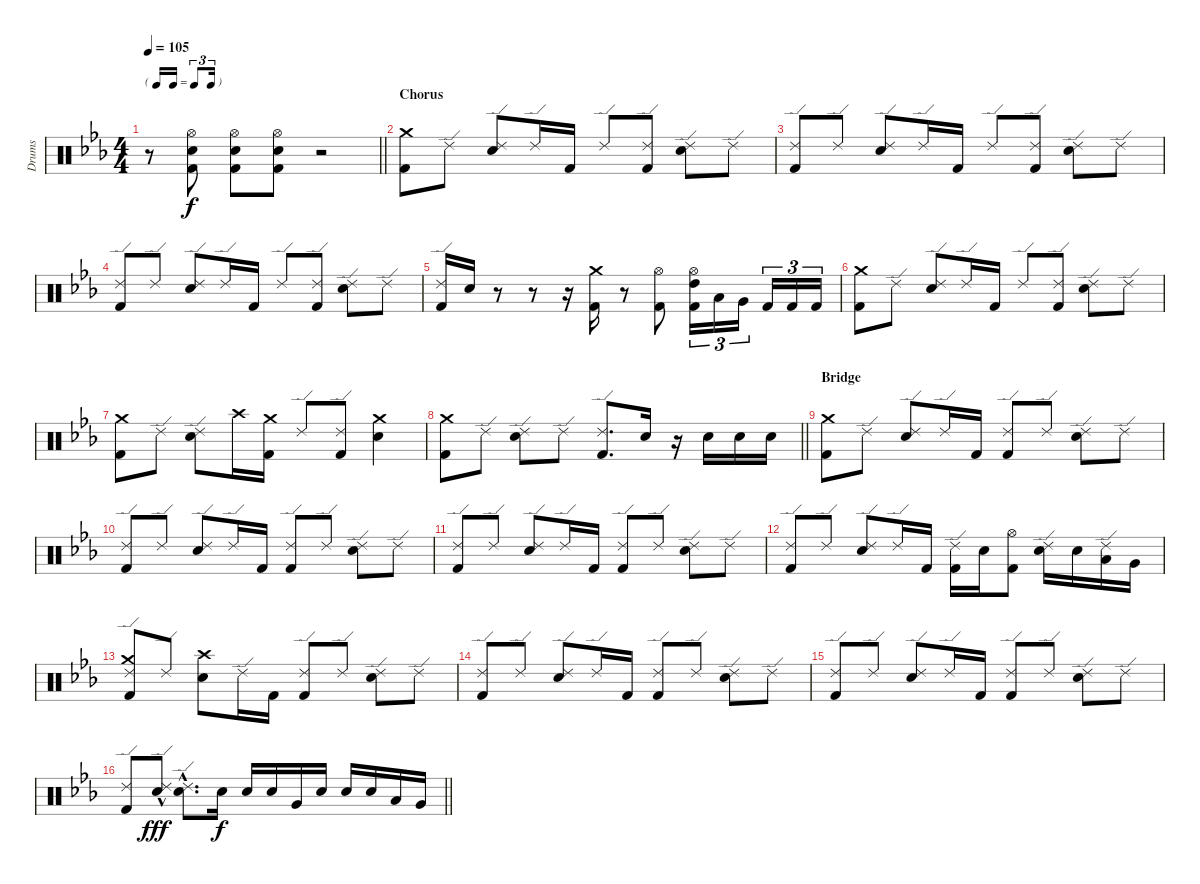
\track ("Drums" "Drums") {instrument percussion}
\staff {score}
\articulation defaults
\ts (4 4)
\tf triplet16th
\tempo 105
\clef neutral
\barLineRight lightlight
\ks eb
r.8{dy f} ("Hi-Hat (open)" "Snare (hit) 2" "Kick (hit) 2").8 ("Hi-Hat (open)" "Snare (hit) 2" "Kick (hit) 2").8 ("Hi-Hat (open)" "Snare (hit) 2" "Kick (hit) 2").8 r.2 |
\section ("" "Chorus")
("Crash medium (hit)" "Kick (hit) 2").8 "Ride (edge) 2".8 ("Ride (edge) 2" "Snare (hit) 2").8 "Ride (edge) 2".16 "Kick (hit) 2".16 "Ride (edge) 2".8 ("Ride (edge) 2" "Kick (hit) 2").8 ("Ride (edge) 2" "Snare (hit) 2").8 "Ride (edge) 2".8 |
("Ride (edge) 2" "Kick (hit) 2").8 "Ride (edge) 2".8 ("Ride (edge) 2" "Snare (hit) 2").8 "Ride (edge) 2".16 "Kick (hit) 2".16 "Ride (edge) 2".8 ("Ride (edge) 2" "Kick (hit) 2").8 ("Ride (edge) 2" "Snare (hit) 2").8 "Ride (edge) 2".8 |
("Ride (edge) 2" "Kick (hit) 2").8 "Ride (edge) 2".8 ("Ride (edge) 2" "Snare (hit) 2").8 "Ride (edge) 2".16 "Kick (hit) 2".16 "Ride (edge) 2".8 ("Ride (edge) 2" "Kick (hit) 2").8 ("Ride (edge) 2" "Snare (hit) 2").8 "Ride (edge) 2".8 |
("Ride (edge) 2" "Kick (hit) 2").16 "Snare (hit) 2".16 r.8 r.8 r.16 ("Crash medium (hit)" "Kick (hit) 2").16 r.8 ("Hi-Hat (open)" "Kick (hit) 2").8 ("Hi-Hat (open)" "High Tom (hit)" "Kick (hit) 2").16{tu (3 2)} "Low Tom (hit)".16{tu (3 2)} "Very Low Tom (hit)".16{tu (3 2) beam splitsecondary} "Kick (hit) 2".16{tu (3 2)} "Kick (hit) 2".16{tu (3 2)} "Kick (hit) 2".16{tu (3 2)} |
("Crash medium (hit)" "Kick (hit) 2").8 "Ride (edge) 2".8 ("Ride (edge) 2" "Snare (hit) 2").8 "Ride (edge) 2".16 "Kick (hit) 2".16 "Ride (edge) 2".8 ("Ride (edge) 2" "Kick (hit) 2").8 ("Ride (edge) 2" "Snare (hit) 2").8 "Ride (edge) 2".8 |
("Crash medium (hit)" "Kick (hit) 2").8 "Ride (edge) 2".8 ("Ride (edge) 2" "Snare (hit) 2").8 "Crash high (hit)".16 ("Crash medium (hit)" "Kick (hit) 2").16 "Ride (edge) 2".8 ("Ride (edge) 2" "Kick (hit) 2").8 ("Crash medium (hit)" "Snare (hit) 2").4 |
\barLineRight lightlight
("Crash medium (hit)" "Kick (hit) 2").8 "Ride (edge) 2".8 ("Ride (edge) 2" "Snare (hit) 2").8 "Ride (edge) 2".8 ("Ride (edge) 2" "Kick (hit) 2").8{d} "Snare (hit) 2".16 r.16 "Snare (hit) 2".16 "Snare (hit) 2".16 "Snare (hit) 2".16 |
\section ("" "Bridge")
("Crash medium (hit)" "Kick (hit) 2").8 "Ride (edge) 2".8 ("Ride (edge) 2" "Snare (hit) 2").8 "Ride (edge) 2".16 "Kick (hit) 2".16 ("Ride (edge) 2" "Kick (hit) 2").8 "Ride (edge) 2".8 ("Ride (edge) 2" "Snare (hit) 2").8 "Ride (edge) 2".8 |
("Ride (edge) 2" "Kick (hit) 2").8 "Ride (edge) 2".8 ("Ride (edge) 2" "Snare (hit) 2").8 "Ride (edge) 2".16 "Kick (hit) 2".16 ("Ride (edge) 2" "Kick (hit) 2").8 "Ride (edge) 2".8 ("Ride (edge) 2" "Snare (hit) 2").8 "Ride (edge) 2".8 |
("Ride (edge) 2" "Kick (hit) 2").8 "Ride (edge) 2".8 ("Ride (edge) 2" "Snare (hit) 2").8 "Ride (edge) 2".16 "Kick (hit) 2".16 ("Ride (edge) 2" "Kick (hit) 2").8 "Ride (edge) 2".8 ("Ride (edge) 2" "Snare (hit) 2").8 "Ride (edge) 2".8 |
("Ride (edge) 2" "Kick (hit) 2").8 "Ride (edge) 2".8 ("Ride (edge) 2" "Snare (hit) 2").8 "Ride (edge) 2".16 "Kick (hit) 2".16 ("Ride (edge) 2" "Kick (hit) 2").16 "Snare (hit) 2".16 ("Hi-Hat (open)" "Kick (hit) 2").8 ("Ride (edge) 2" "Snare (hit) 2").16 "Snare (hit) 2".16 ("Ride (edge) 2" "Low Tom (hit)").16 "Very Low Tom (hit)".16 |
("Crash medium (hit)" "Ride (edge) 2" "Kick (hit) 2").8 "Ride (edge) 2".8 ("Crash high (hit)" "Snare (hit) 2").8 "Ride (edge) 2".16 "Kick (hit) 2".16 ("Ride (edge) 2" "Kick (hit) 2").8 "Ride (edge) 2".8 ("Ride (edge) 2" "Snare (hit) 2").8 "Ride (edge) 2".8 |
("Ride (edge) 2" "Kick (hit) 2").8 "Ride (edge) 2".8 ("Ride (edge) 2" "Snare (hit) 2").8 "Ride (edge) 2".16 "Kick (hit) 2".16 ("Ride (edge) 2" "Kick (hit) 2").8 "Ride (edge) 2".8 ("Ride (edge) 2" "Snare (hit) 2").8 "Ride (edge) 2".8 |
("Ride (edge) 2" "Kick (hit) 2").8 "Ride (edge) 2".8 ("Ride (edge) 2" "Snare (hit) 2").8 "Ride (edge) 2".16 "Kick (hit) 2".16 ("Ride (edge) 2" "Kick (hit) 2").8 "Ride (edge) 2".8 ("Ride (edge) 2" "Snare (hit) 2").8 "Ride (edge) 2".8 |
\barLineRight lightlight
("Ride (edge) 2" "Kick (hit) 2").8 ("Ride (edge) 2"{hac} "Snare (hit) 2").8{dy fff} ("Ride (edge) 2"{hac} "Snare (hit) 2").8{d} "Snare (hit) 2".16{dy f} "Snare (hit) 2".16 "Snare (hit) 2".16 "Very Low Tom (hit)".16 "Snare (hit) 2".16 "Snare (hit) 2".16 "Snare (hit) 2".16 "Low Tom (hit)".16 "Very Low Tom (hit)".16
